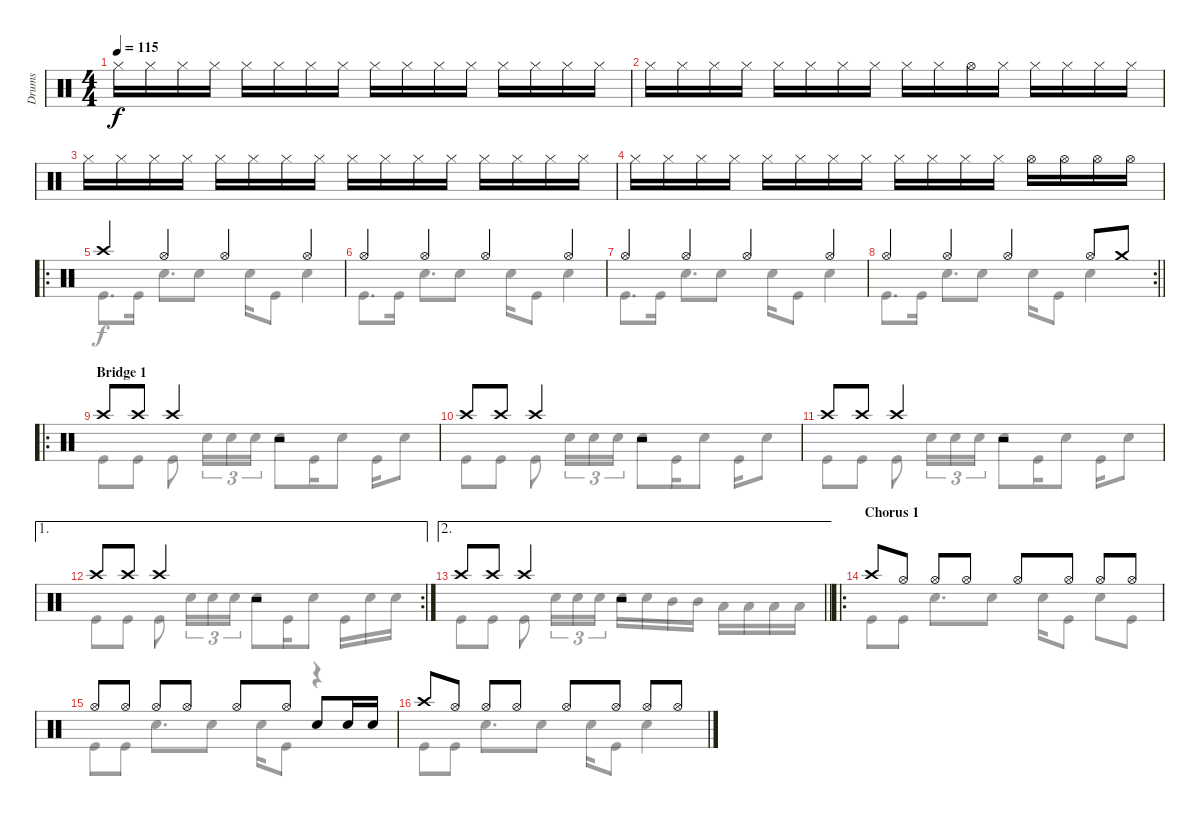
\track ("Drums" "Drums") {instrument percussion}
\staff {score}
\articulation defaults
\voice
\ts (4 4)
\tempo 115
\clef neutral
\ks c "Hi-Hat (closed)".16{dy f} "Hi-Hat (closed)".16 "Hi-Hat (closed)".16 "Hi-Hat (closed)".16 "Hi-Hat (closed)".16 "Hi-Hat (closed)".16 "Hi-Hat (closed)".16 "Hi-Hat (closed)".16 "Hi-Hat (closed)".16 "Hi-Hat (closed)".16 "Hi-Hat (closed)".16 "Hi-Hat (closed)".16 "Hi-Hat (closed)".16 "Hi-Hat (closed)".16 "Hi-Hat (closed)".16 "Hi-Hat (closed)".16
|
"Hi-Hat (closed)".16 "Hi-Hat (closed)".16 "Hi-Hat (closed)".16 "Hi-Hat (closed)".16 "Hi-Hat (closed)".16 "Hi-Hat (closed)".16 "Hi-Hat (closed)".16 "Hi-Hat (closed)".16 "Hi-Hat (closed)".16 "Hi-Hat (closed)".16 "Hi-Hat (open)".16 "Hi-Hat (closed)".16 "Hi-Hat (closed)".16 "Hi-Hat (closed)".16 "Hi-Hat (closed)".16 "Hi-Hat (closed)".16 |
"Hi-Hat (closed)".16 "Hi-Hat (closed)".16 "Hi-Hat (closed)".16 "Hi-Hat (closed)".16 "Hi-Hat (closed)".16 "Hi-Hat (closed)".16 "Hi-Hat (closed)".16 "Hi-Hat (closed)".16 "Hi-Hat (closed)".16 "Hi-Hat (closed)".16 "Hi-Hat (closed)".16 "Hi-Hat (closed)".16 "Hi-Hat (closed)".16 "Hi-Hat (closed)".16 "Hi-Hat (closed)".16 "Hi-Hat (closed)".16 |
"Hi-Hat (closed)".16 "Hi-Hat (closed)".16 "Hi-Hat (closed)".16 "Hi-Hat (closed)".16 "Hi-Hat (closed)".16 "Hi-Hat (closed)".16 "Hi-Hat (closed)".16 "Hi-Hat (closed)".16 "Hi-Hat (closed)".16 "Hi-Hat (closed)".16 "Hi-Hat (closed)".16 "Hi-Hat (closed)".16 "Hi-Hat (open)".16 "Hi-Hat (open)".16 "Hi-Hat (open)".16 "Hi-Hat (open)".16 |
\ro "Crash high (hit)".4 "Hi-Hat (open)".4 "Hi-Hat (open)".4 "Hi-Hat (open)".4
|
"Hi-Hat (open)".4 "Hi-Hat (open)".4 "Hi-Hat (open)".4 "Hi-Hat (open)".4 |
"Hi-Hat (open)".4 "Hi-Hat (open)".4 "Hi-Hat (open)".4 "Hi-Hat (open)".4 |
\rc 2
\barLineRight lightlight "Hi-Hat (open)".4 "Hi-Hat (open)".4 "Hi-Hat (open)".4 "Hi-Hat (open)".8 "Crash medium (hit)".8
|
\ro
\section ("" "Bridge 1")
"Crash high (hit)".8 "Crash high (hit)".8 "Crash high (hit)".4 r.2 |
"Crash high (hit)".8 "Crash high (hit)".8 "Crash high (hit)".4 r.2 |
"Crash high (hit)".8 "Crash high (hit)".8 "Crash high (hit)".4 r.2 |
\ae 1
\rc 2 "Crash high (hit)".8 "Crash high (hit)".8 "Crash high (hit)".4
r.2 |
\ae 2
\barLineRight lightlight "Crash high (hit)".8 "Crash high (hit)".8 "Crash high (hit)".4
r.2 |
\ro
\section ("" "Chorus 1")
"Crash high (hit)".8 "Hi-Hat (open)".8 "Hi-Hat (open)".8 "Hi-Hat (open)".8 "Hi-Hat (open)".8 "Hi-Hat (open)".8 "Hi-Hat (open)".8 "Hi-Hat (open)".8 |
"Hi-Hat (open)".8 "Hi-Hat (open)".8 "Hi-Hat (open)".8 "Hi-Hat (open)".8 "Hi-Hat (open)".8 "Hi-Hat (open)".8 "Electric Snare (hit)".8 "Electric Snare (hit)".16 "Electric Snare (hit)".16 |
"Crash high (hit)".8 "Hi-Hat (open)".8 "Hi-Hat (open)".8 "Hi-Hat (open)".8 "Hi-Hat (open)".8 "Hi-Hat (open)".8 "Hi-Hat (open)".8 "Hi-Hat (open)".8
\voice
\clef neutral
\ottava regular
\simile none
\ks c
|
|
|
|
"Kick (hit)".8{d} "Kick (hit)".16 "Electric Snare (hit)".8{d} "Electric Snare (hit)".8 "Electric Snare (hit)".16 "Kick (hit)".8 "Electric Snare (hit)".4 |
"Kick (hit)".8{d} "Kick (hit)".16 "Electric Snare (hit)".8{d} "Electric Snare (hit)".8 "Electric Snare (hit)".16 "Kick (hit)".8 "Electric Snare (hit)".4 |
"Kick (hit)".8{d} "Kick (hit)".16 "Electric Snare (hit)".8{d} "Electric Snare (hit)".8 "Electric Snare (hit)".16 "Kick (hit)".8 "Electric Snare (hit)".4 |
\barLineRight lightlight "Kick (hit)".8{d} "Kick (hit)".16 "Electric Snare (hit)".8{d} "Electric Snare (hit)".8 "Electric Snare (hit)".16 "Kick (hit)".8 "Electric Snare (hit)".4
|
"Kick (hit)".8 "Kick (hit)".8 "Kick (hit)".8 "Electric Snare (hit)".16{tu (3 2)} "Electric Snare (hit)".16{tu (3 2)} "Electric Snare (hit)".16{tu (3 2)} "Electric Snare (hit)".8 "Kick (hit)".16 "Electric Snare (hit)".8 "Kick (hit)".16 "Electric Snare (hit)".8 |
"Kick (hit)".8 "Kick (hit)".8 "Kick (hit)".8 "Electric Snare (hit)".16{tu (3 2)} "Electric Snare (hit)".16{tu (3 2)} "Electric Snare (hit)".16{tu (3 2)} "Electric Snare (hit)".8 "Kick (hit)".16 "Electric Snare (hit)".8 "Kick (hit)".16 "Electric Snare (hit)".8 |
"Kick (hit)".8 "Kick (hit)".8 "Kick (hit)".8 "Electric Snare (hit)".16{tu (3 2)} "Electric Snare (hit)".16{tu (3 2)} "Electric Snare (hit)".16{tu (3 2)} "Electric Snare (hit)".8 "Kick (hit)".16 "Electric Snare (hit)".8 "Kick (hit)".16 "Electric Snare (hit)".8 |
"Kick (hit)".8 "Kick (hit)".8 "Kick (hit)".8 "Electric Snare (hit)".16{tu (3 2)} "Electric Snare (hit)".16{tu (3 2)} "Electric Snare (hit)".16{tu (3 2)} "Electric Snare (hit)".8 "Kick (hit)".16 "Electric Snare (hit)".8 "Kick (hit)".16 "Electric Snare (hit)".16 "Electric Snare (hit)".16 |
\barLineRight lightlight "Kick (hit)".8 "Kick (hit)".8 "Kick (hit)".8 "Electric Snare (hit)".16{tu (3 2)} "Electric Snare (hit)".16{tu (3 2)} "Electric Snare (hit)".16{tu (3 2)} "Electric Snare (hit)".16 "Electric Snare (hit)".16 "Mid Tom (hit)".16 "Mid Tom (hit)".16 "Low Tom (hit)".16 "Low Tom (hit)".16 "Low Floor Tom (hit)".16 "Low Floor Tom (hit)".16
|
"Kick (hit)".8 "Kick (hit)".8 "Electric Snare (hit)".8{d} "Electric Snare (hit)".8 "Electric Snare (hit)".16 "Kick (hit)".8 "Electric Snare (hit)".8 "Kick (hit)".8 |
"Kick (hit)".8 "Kick (hit)".8 "Electric Snare (hit)".8{d} "Electric Snare (hit)".8 "Electric Snare (hit)".16 "Kick (hit)".8 r.4 |
"Kick (hit)".8 "Kick (hit)".8 "Electric Snare (hit)".8{d} "Electric Snare (hit)".8 "Electric Snare (hit)".16 "Kick (hit)".8 "Electric Snare (hit)".4
